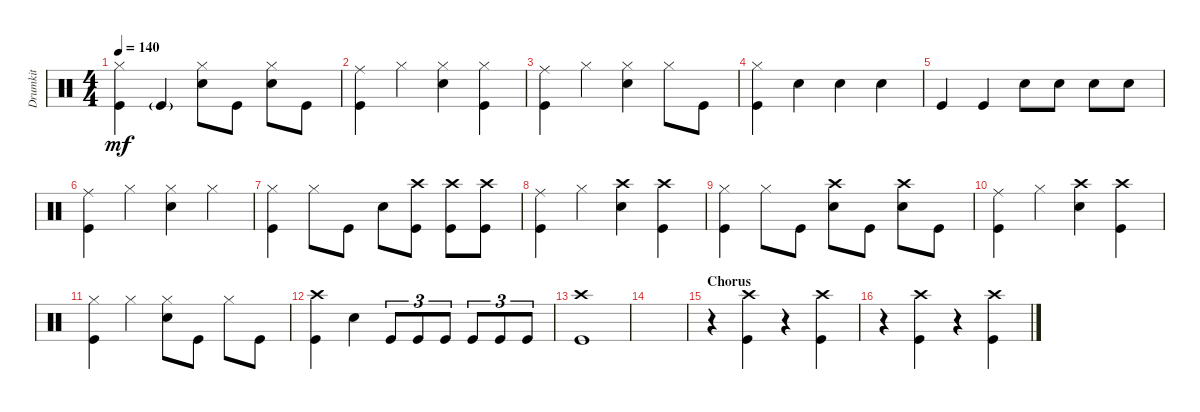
\track ("Drumkit" "Drumkit") {instrument percussion}
\staff {score}
\articulation defaults
\ts (4 4)
\tempo 140
\clef neutral
\ks c
("Hi-Hat (closed)" "Kick (hit)").4{dy mf} "Kick (hit)"{g}.4 ("Hi-Hat (closed)" "Snare (hit) 2").8 "Kick (hit)".8 ("Hi-Hat (closed)" "Snare (hit) 2").8 "Kick (hit)".8 |
("Kick (hit)" "Ride (middle)").4 "Hi-Hat (closed)".4 ("Hi-Hat (closed)" "Snare (hit) 2").4 ("Hi-Hat (closed)" "Kick (hit)").4 |
("Kick (hit)" "Ride (middle)").4 "Hi-Hat (closed)".4 ("Hi-Hat (closed)" "Snare (hit) 2").4 "Hi-Hat (closed)".8 "Kick (hit)".8 |
("Kick (hit)" "Hi-Hat (closed)").4 "Snare (hit) 2".4 "Snare (hit) 2".4 "Snare (hit) 2".4 |
"Kick (hit)".4 "Kick (hit)".4 "Snare (hit) 2".8 "Snare (hit) 2".8 "Snare (hit) 2".8 "Snare (hit) 2".8 |
("Kick (hit)" "Ride (middle)").4 "Hi-Hat (closed)".4 ("Hi-Hat (closed)" "Snare (hit) 2").4 "Hi-Hat (closed)".4 |
("Kick (hit)" "Hi-Hat (closed)").4 "Hi-Hat (closed)".8 "Kick (hit)".8 "Snare (hit) 2".8 ("Kick (hit)" "Crash high (hit)").8 ("Kick (hit)" "Crash high (hit)").8 ("Kick (hit)" "Crash high (hit)").8 |
("Kick (hit)" "Ride (middle)").4 "Hi-Hat (closed)".4 ("Snare (hit) 2" "Crash high (hit)").4 ("Crash high (hit)" "Kick (hit)").4 |
("Kick (hit)" "Hi-Hat (closed)").4 "Hi-Hat (closed)".8 "Kick (hit)".8 ("Snare (hit) 2" "Crash high (hit)").8 "Kick (hit)".8 ("Crash high (hit)" "Snare (hit) 2").8 "Kick (hit)".8 |
("Kick (hit)" "Ride (middle)").4 "Hi-Hat (closed)".4 ("Snare (hit) 2" "Crash high (hit)").4 ("Crash high (hit)" "Kick (hit)").4 |
("Kick (hit)" "Hi-Hat (closed)").4 "Hi-Hat (closed)".4 ("Snare (hit) 2" "Hi-Hat (closed)").8 "Kick (hit)".8 "Hi-Hat (closed)".8 "Kick (hit)".8 |
("Crash high (hit)" "Kick (hit)").4 "Snare (hit) 2".4 "Kick (hit)".8{tu (3 2)} "Kick (hit)".8{tu (3 2)} "Kick (hit)".8{tu (3 2)} "Kick (hit)".8{tu (3 2)} "Kick (hit)".8{tu (3 2)} "Kick (hit)".8{tu (3 2)} |
("Crash high (hit)" "Kick (hit)").1 |
|
\section ("" "Chorus")
r.4 ("Crash high (hit)" "Kick (hit)").4 r.4 ("Crash high (hit)" "Kick (hit)").4 |
r.4 ("Crash high (hit)" "Kick (hit)").4 r.4 ("Crash high (hit)" "Kick (hit)").4
